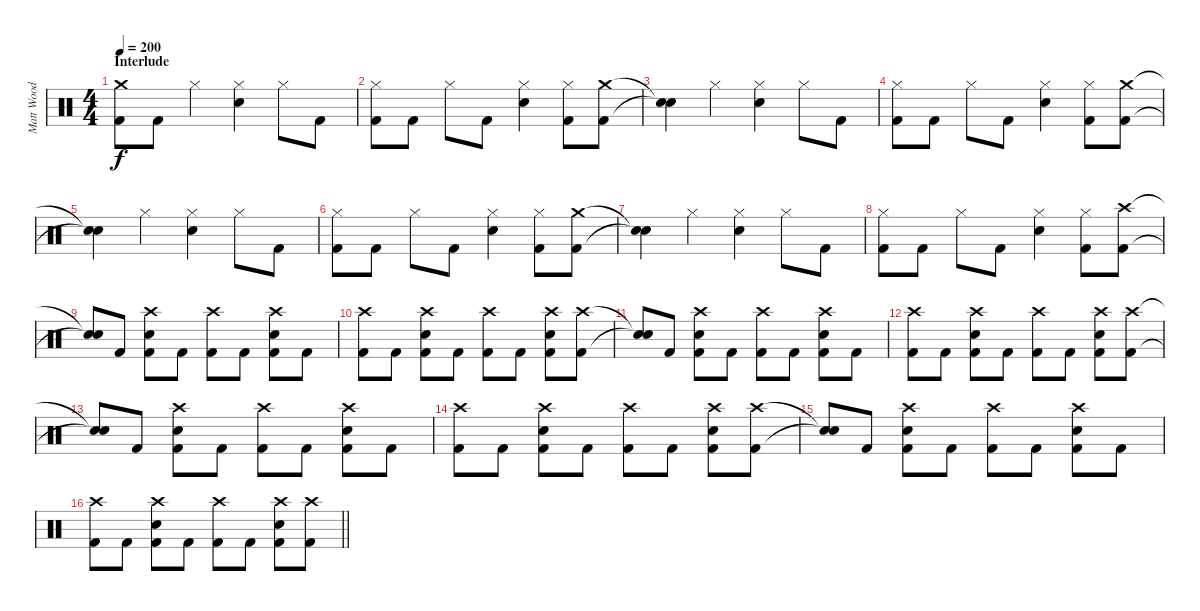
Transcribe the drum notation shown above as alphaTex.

\track ("Matt Wood" "Matt Wood") {instrument percussion}
\staff {score}
\articulation defaults
\ts (4 4)
\section ("" "Interlude")
\tempo 200
\clef neutral
\ks c
("Crash medium (hit)" "Kick (hit) 2").8{dy f} "Kick (hit) 2".8 "Hi-Hat (closed)".4 ("Hi-Hat (closed)" "Snare (hit) 2").4 "Hi-Hat (closed)".8 "Kick (hit) 2".8 |
("Hi-Hat (closed)" "Kick (hit) 2").8 "Kick (hit) 2".8 "Hi-Hat (closed)".8 "Kick (hit) 2".8 ("Hi-Hat (closed)" "Snare (hit) 2").4 ("Hi-Hat (closed)" "Kick (hit) 2").8 ("Crash medium (hit)" "Kick (hit) 2").8 |
("Snare (hit)"{t} "Snare (hit)"{t}).4 "Hi-Hat (closed)".4 ("Hi-Hat (closed)" "Snare (hit) 2").4 "Hi-Hat (closed)".8 "Kick (hit) 2".8 |
("Hi-Hat (closed)" "Kick (hit) 2").8 "Kick (hit) 2".8 "Hi-Hat (closed)".8 "Kick (hit) 2".8 ("Hi-Hat (closed)" "Snare (hit) 2").4 ("Hi-Hat (closed)" "Kick (hit) 2").8 ("Crash medium (hit)" "Kick (hit) 2").8 |
("Snare (hit)"{t} "Snare (hit)"{t}).4 "Hi-Hat (closed)".4 ("Hi-Hat (closed)" "Snare (hit) 2").4 "Hi-Hat (closed)".8 "Kick (hit) 2".8 |
("Hi-Hat (closed)" "Kick (hit) 2").8 "Kick (hit) 2".8 "Hi-Hat (closed)".8 "Kick (hit) 2".8 ("Hi-Hat (closed)" "Snare (hit) 2").4 ("Hi-Hat (closed)" "Kick (hit) 2").8 ("Crash medium (hit)" "Kick (hit) 2").8 |
("Snare (hit)"{t} "Snare (hit)"{t}).4 "Hi-Hat (closed)".4 ("Hi-Hat (closed)" "Snare (hit) 2").4 "Hi-Hat (closed)".8 "Kick (hit) 2".8 |
("Hi-Hat (closed)" "Kick (hit) 2").8 "Kick (hit) 2".8 "Hi-Hat (closed)".8 "Kick (hit) 2".8 ("Hi-Hat (closed)" "Snare (hit) 2").4 ("Hi-Hat (closed)" "Kick (hit) 2").8 ("Crash high (hit)" "Kick (hit) 2").8 |
("Snare (hit)"{t} "Snare (hit)"{t}).8 "Kick (hit) 2".8 ("Crash high (hit)" "Snare (hit) 2" "Kick (hit) 2").8 "Kick (hit) 2".8 ("Crash high (hit)" "Kick (hit) 2").8 "Kick (hit) 2".8 ("Crash high (hit)" "Snare (hit) 2" "Kick (hit) 2").8 "Kick (hit) 2".8 |
("Crash high (hit)" "Kick (hit) 2").8 "Kick (hit) 2".8 ("Crash high (hit)" "Snare (hit) 2" "Kick (hit) 2").8 "Kick (hit) 2".8 ("Crash high (hit)" "Kick (hit) 2").8 "Kick (hit) 2".8 ("Crash high (hit)" "Snare (hit) 2" "Kick (hit) 2").8 ("Crash high (hit)" "Kick (hit) 2").8 |
("Snare (hit)"{t} "Snare (hit)"{t}).8 "Kick (hit) 2".8 ("Crash high (hit)" "Snare (hit) 2" "Kick (hit) 2").8 "Kick (hit) 2".8 ("Crash high (hit)" "Kick (hit) 2").8 "Kick (hit) 2".8 ("Crash high (hit)" "Snare (hit) 2" "Kick (hit) 2").8 "Kick (hit) 2".8 |
("Crash high (hit)" "Kick (hit) 2").8 "Kick (hit) 2".8 ("Crash high (hit)" "Snare (hit) 2" "Kick (hit) 2").8 "Kick (hit) 2".8 ("Crash high (hit)" "Kick (hit) 2").8 "Kick (hit) 2".8 ("Crash high (hit)" "Snare (hit) 2" "Kick (hit) 2").8 ("Crash high (hit)" "Kick (hit) 2").8 |
("Snare (hit)"{t} "Snare (hit)"{t}).8 "Kick (hit) 2".8 ("Crash high (hit)" "Snare (hit) 2" "Kick (hit) 2").8 "Kick (hit) 2".8 ("Crash high (hit)" "Kick (hit) 2").8 "Kick (hit) 2".8 ("Crash high (hit)" "Snare (hit) 2" "Kick (hit) 2").8 "Kick (hit) 2".8 |
("Crash high (hit)" "Kick (hit) 2").8 "Kick (hit) 2".8 ("Crash high (hit)" "Snare (hit) 2" "Kick (hit) 2").8 "Kick (hit) 2".8 ("Crash high (hit)" "Kick (hit) 2").8 "Kick (hit) 2".8 ("Crash high (hit)" "Snare (hit) 2" "Kick (hit) 2").8 ("Crash high (hit)" "Kick (hit) 2").8 |
("Snare (hit)"{t} "Snare (hit)"{t}).8 "Kick (hit) 2".8 ("Crash high (hit)" "Snare (hit) 2" "Kick (hit) 2").8 "Kick (hit) 2".8 ("Crash high (hit)" "Kick (hit) 2").8 "Kick (hit) 2".8 ("Crash high (hit)" "Snare (hit) 2" "Kick (hit) 2").8 "Kick (hit) 2".8 |
\barLineRight lightlight
("Crash high (hit)" "Kick (hit) 2").8 "Kick (hit) 2".8 ("Crash high (hit)" "Snare (hit) 2" "Kick (hit) 2").8 "Kick (hit) 2".8 ("Crash high (hit)" "Kick (hit) 2").8 "Kick (hit) 2".8 ("Crash high (hit)" "Snare (hit) 2" "Kick (hit) 2").8 ("Crash high (hit)" "Kick (hit) 2").8
